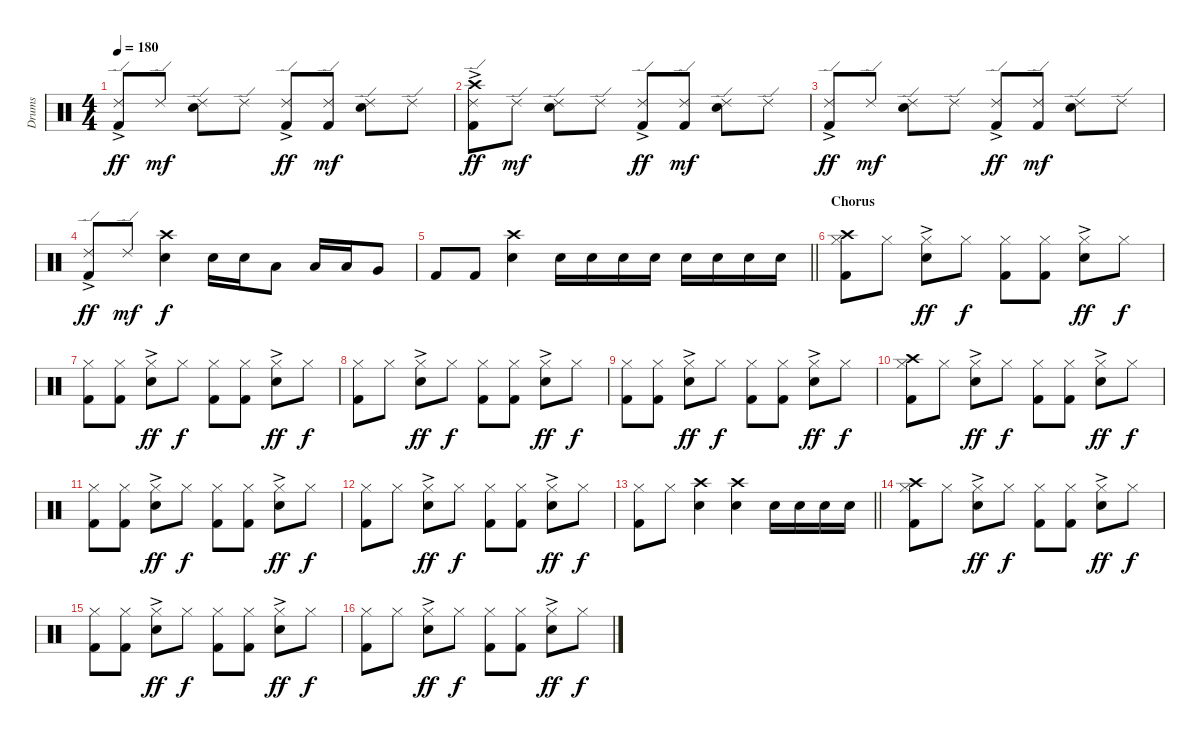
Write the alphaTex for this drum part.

\track ("Drums" "Drums") {instrument percussion}
\staff {score}
\articulation defaults
\ts (4 4)
\tempo 180
\clef neutral
\ks c
("Ride (edge) 2"{ac} "Kick (hit) 2").8{dy ff} "Ride (edge) 2".8{dy mf} ("Ride (edge) 2" "Snare (hit) 2").8 "Ride (edge) 2".8 ("Ride (edge) 2"{ac} "Kick (hit) 2").8{dy ff} ("Ride (edge) 2" "Kick (hit) 2").8{dy mf} ("Ride (edge) 2" "Snare (hit) 2").8 "Ride (edge) 2".8 |
("Ride (edge) 2"{ac} "Crash high (hit)" "Kick (hit) 2").8{dy ff} "Ride (edge) 2".8{dy mf} ("Ride (edge) 2" "Snare (hit) 2").8 "Ride (edge) 2".8 ("Ride (edge) 2"{ac} "Kick (hit) 2").8{dy ff} ("Ride (edge) 2" "Kick (hit) 2").8{dy mf} ("Ride (edge) 2" "Snare (hit) 2").8 "Ride (edge) 2".8 |
("Ride (edge) 2"{ac} "Kick (hit) 2").8{dy ff} "Ride (edge) 2".8{dy mf} ("Ride (edge) 2" "Snare (hit) 2").8 "Ride (edge) 2".8 ("Ride (edge) 2"{ac} "Kick (hit) 2").8{dy ff} ("Ride (edge) 2" "Kick (hit) 2").8{dy mf} ("Ride (edge) 2" "Snare (hit) 2").8 "Ride (edge) 2".8 |
("Ride (edge) 2"{ac} "Kick (hit) 2").8{dy ff} "Ride (edge) 2".8{dy mf} ("Crash high (hit)" "Snare (hit) 2").4{dy f} "Snare (hit) 2".16 "Snare (hit) 2".16 "Low Tom (hit)".8 "Low Tom (hit)".16 "Low Tom (hit)".16 "Very Low Tom (hit)".8 |
\barLineRight lightlight "Kick (hit) 2".8 "Kick (hit) 2".8
("Crash high (hit)" "Snare (hit) 2").4 "Snare (hit) 2".16 "Snare (hit) 2".16 "Snare (hit) 2".16 "Snare (hit) 2".16 "Snare (hit) 2".16 "Snare (hit) 2".16 "Snare (hit) 2".16 "Snare (hit) 2".16 |
\section ("" "Chorus")
("Hi-Hat (closed)" "Crash high (hit)" "Kick (hit) 2").8 "Hi-Hat (closed)".8 ("Hi-Hat (closed)"{ac} "Snare (hit) 2").8{dy ff} "Hi-Hat (closed)".8{dy f} ("Hi-Hat (closed)" "Kick (hit) 2").8 ("Hi-Hat (closed)" "Kick (hit) 2").8 ("Hi-Hat (closed)"{ac} "Snare (hit) 2").8{dy ff} "Hi-Hat (closed)".8{dy f} |
("Hi-Hat (closed)" "Kick (hit) 2").8 ("Hi-Hat (closed)" "Kick (hit) 2").8 ("Hi-Hat (closed)"{ac} "Snare (hit) 2").8{dy ff} "Hi-Hat (closed)".8{dy f} ("Hi-Hat (closed)" "Kick (hit) 2").8 ("Hi-Hat (closed)" "Kick (hit) 2").8 ("Hi-Hat (closed)"{ac} "Snare (hit) 2").8{dy ff} "Hi-Hat (closed)".8{dy f} |
("Hi-Hat (closed)" "Kick (hit) 2").8 "Hi-Hat (closed)".8 ("Hi-Hat (closed)"{ac} "Snare (hit) 2").8{dy ff} "Hi-Hat (closed)".8{dy f} ("Hi-Hat (closed)" "Kick (hit) 2").8 ("Hi-Hat (closed)" "Kick (hit) 2").8 ("Hi-Hat (closed)"{ac} "Snare (hit) 2").8{dy ff} "Hi-Hat (closed)".8{dy f} |
("Hi-Hat (closed)" "Kick (hit) 2").8 ("Hi-Hat (closed)" "Kick (hit) 2").8 ("Hi-Hat (closed)"{ac} "Snare (hit) 2").8{dy ff} "Hi-Hat (closed)".8{dy f} ("Hi-Hat (closed)" "Kick (hit) 2").8 ("Hi-Hat (closed)" "Kick (hit) 2").8 ("Hi-Hat (closed)"{ac} "Snare (hit) 2").8{dy ff} "Hi-Hat (closed)".8{dy f} |
("Hi-Hat (closed)" "Crash high (hit)" "Kick (hit) 2").8 "Hi-Hat (closed)".8 ("Hi-Hat (closed)"{ac} "Snare (hit) 2").8{dy ff} "Hi-Hat (closed)".8{dy f} ("Hi-Hat (closed)" "Kick (hit) 2").8 ("Hi-Hat (closed)" "Kick (hit) 2").8 ("Hi-Hat (closed)"{ac} "Snare (hit) 2").8{dy ff} "Hi-Hat (closed)".8{dy f} |
("Hi-Hat (closed)" "Kick (hit) 2").8 ("Hi-Hat (closed)" "Kick (hit) 2").8 ("Hi-Hat (closed)"{ac} "Snare (hit) 2").8{dy ff} "Hi-Hat (closed)".8{dy f} ("Hi-Hat (closed)" "Kick (hit) 2").8 ("Hi-Hat (closed)" "Kick (hit) 2").8 ("Hi-Hat (closed)"{ac} "Snare (hit) 2").8{dy ff} "Hi-Hat (closed)".8{dy f} |
("Hi-Hat (closed)" "Kick (hit) 2").8 "Hi-Hat (closed)".8 ("Hi-Hat (closed)"{ac} "Snare (hit) 2").8{dy ff} "Hi-Hat (closed)".8{dy f} ("Hi-Hat (closed)" "Kick (hit) 2").8 ("Hi-Hat (closed)" "Kick (hit) 2").8 ("Hi-Hat (closed)"{ac} "Snare (hit) 2").8{dy ff} "Hi-Hat (closed)".8{dy f} |
\barLineRight lightlight
("Hi-Hat (closed)" "Kick (hit) 2").8 "Hi-Hat (closed)".8 ("Crash high (hit)" "Snare (hit) 2").4 ("Crash high (hit)" "Snare (hit) 2").4 "Snare (hit) 2".16 "Snare (hit) 2".16 "Snare (hit) 2".16 "Snare (hit) 2".16 |
("Hi-Hat (closed)" "Crash high (hit)" "Kick (hit) 2").8 "Hi-Hat (closed)".8 ("Hi-Hat (closed)"{ac} "Snare (hit) 2").8{dy ff} "Hi-Hat (closed)".8{dy f} ("Hi-Hat (closed)" "Kick (hit) 2").8 ("Hi-Hat (closed)" "Kick (hit) 2").8 ("Hi-Hat (closed)"{ac} "Snare (hit) 2").8{dy ff} "Hi-Hat (closed)".8{dy f} |
("Hi-Hat (closed)" "Kick (hit) 2").8 ("Hi-Hat (closed)" "Kick (hit) 2").8 ("Hi-Hat (closed)"{ac} "Snare (hit) 2").8{dy ff} "Hi-Hat (closed)".8{dy f} ("Hi-Hat (closed)" "Kick (hit) 2").8 ("Hi-Hat (closed)" "Kick (hit) 2").8 ("Hi-Hat (closed)"{ac} "Snare (hit) 2").8{dy ff} "Hi-Hat (closed)".8{dy f} |
("Hi-Hat (closed)" "Kick (hit) 2").8 "Hi-Hat (closed)".8 ("Hi-Hat (closed)"{ac} "Snare (hit) 2").8{dy ff} "Hi-Hat (closed)".8{dy f} ("Hi-Hat (closed)" "Kick (hit) 2").8 ("Hi-Hat (closed)" "Kick (hit) 2").8 ("Hi-Hat (closed)"{ac} "Snare (hit) 2").8{dy ff} "Hi-Hat (closed)".8{dy f}
